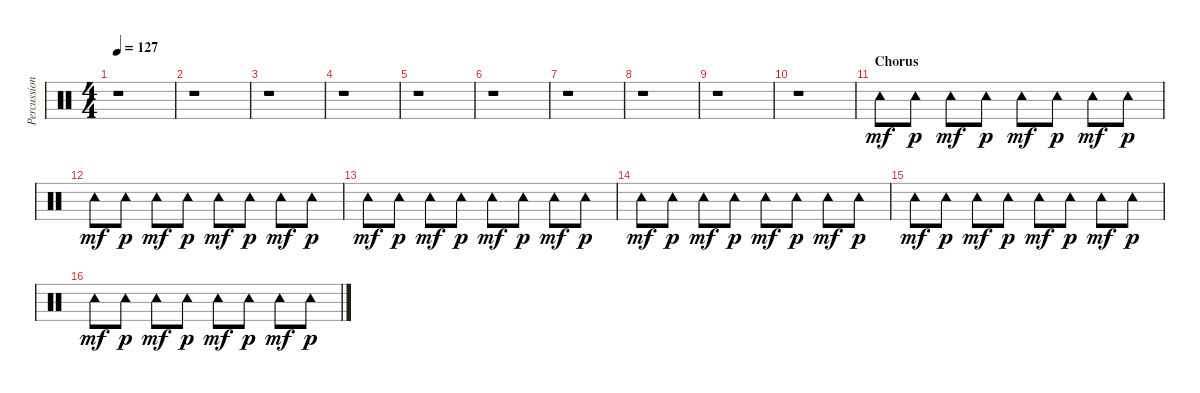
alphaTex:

\track ("Percussion Overdubs" "Percussion") {instrument percussion}
\staff {score}
\articulation defaults
\ts (4 4)
\tempo 127
\clef neutral
\ks c
r.1{dy mf} |
r.1 |
r.1 |
r.1 |
r.1 |
r.1 |
r.1 |
r.1 |
r.1 |
r.1 |
\section ("" "Chorus")
"Tambourine (hit)".8 "Tambourine (hit)".8{dy p} "Tambourine (hit)".8{dy mf} "Tambourine (hit)".8{dy p} "Tambourine (hit)".8{dy mf} "Tambourine (hit)".8{dy p} "Tambourine (hit)".8{dy mf} "Tambourine (hit)".8{dy p} |
"Tambourine (hit)".8{dy mf} "Tambourine (hit)".8{dy p} "Tambourine (hit)".8{dy mf} "Tambourine (hit)".8{dy p} "Tambourine (hit)".8{dy mf} "Tambourine (hit)".8{dy p} "Tambourine (hit)".8{dy mf} "Tambourine (hit)".8{dy p} |
"Tambourine (hit)".8{dy mf} "Tambourine (hit)".8{dy p} "Tambourine (hit)".8{dy mf} "Tambourine (hit)".8{dy p} "Tambourine (hit)".8{dy mf} "Tambourine (hit)".8{dy p} "Tambourine (hit)".8{dy mf} "Tambourine (hit)".8{dy p} |
"Tambourine (hit)".8{dy mf} "Tambourine (hit)".8{dy p} "Tambourine (hit)".8{dy mf} "Tambourine (hit)".8{dy p} "Tambourine (hit)".8{dy mf} "Tambourine (hit)".8{dy p} "Tambourine (hit)".8{dy mf} "Tambourine (hit)".8{dy p} |
"Tambourine (hit)".8{dy mf} "Tambourine (hit)".8{dy p} "Tambourine (hit)".8{dy mf} "Tambourine (hit)".8{dy p} "Tambourine (hit)".8{dy mf} "Tambourine (hit)".8{dy p} "Tambourine (hit)".8{dy mf} "Tambourine (hit)".8{dy p} |
"Tambourine (hit)".8{dy mf} "Tambourine (hit)".8{dy p} "Tambourine (hit)".8{dy mf} "Tambourine (hit)".8{dy p} "Tambourine (hit)".8{dy mf} "Tambourine (hit)".8{dy p} "Tambourine (hit)".8{dy mf} "Tambourine (hit)".8{dy p}
